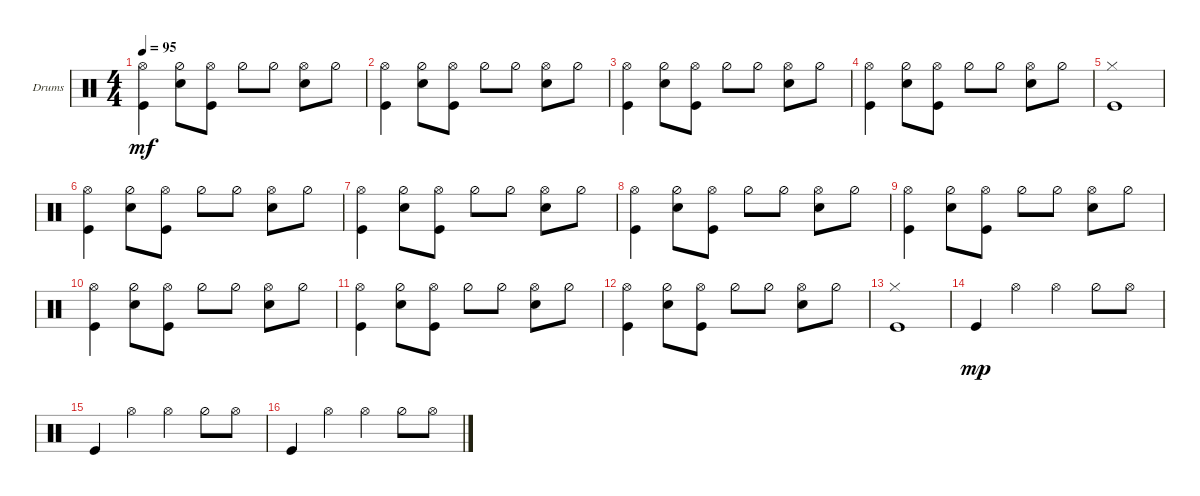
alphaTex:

\defaultSystemsLayout 4
\bracketExtendMode groupsimilarinstruments
\firstSystemTrackNameOrientation horizontal
\otherSystemsTrackNameOrientation horizontal
\track ("Drums" "Drums") {instrument percussion}
\staff {score}
\articulation defaults
\ts (4 4)
\tempo 95
\clef neutral
\ks c
("Kick (hit)" "Hi-Hat (open)").4{dy mf} ("Snare (hit) 2" "Hi-Hat (half)").8 ("Kick (hit)" "Hi-Hat (open)").8 "Hi-Hat (half)".8 "Hi-Hat (half)".8 ("Snare (hit) 2" "Hi-Hat (open)").8 "Hi-Hat (half)".8 |
("Kick (hit)" "Hi-Hat (open)").4 ("Snare (hit) 2" "Hi-Hat (half)").8 ("Kick (hit)" "Hi-Hat (open)").8 "Hi-Hat (half)".8 "Hi-Hat (half)".8 ("Snare (hit) 2" "Hi-Hat (open)").8 "Hi-Hat (half)".8 |
("Kick (hit)" "Hi-Hat (open)").4 ("Snare (hit) 2" "Hi-Hat (half)").8 ("Kick (hit)" "Hi-Hat (open)").8 "Hi-Hat (half)".8 "Hi-Hat (half)".8 ("Snare (hit) 2" "Hi-Hat (open)").8 "Hi-Hat (half)".8 |
("Kick (hit)" "Hi-Hat (open)").4 ("Snare (hit) 2" "Hi-Hat (half)").8 ("Kick (hit)" "Hi-Hat (open)").8 "Hi-Hat (half)".8 "Hi-Hat (half)".8 ("Snare (hit) 2" "Hi-Hat (open)").8 "Hi-Hat (half)".8 |
("Kick (hit)" "Hi-Hat (closed)").1 |
("Kick (hit)" "Hi-Hat (open)").4 ("Snare (hit) 2" "Hi-Hat (half)").8 ("Kick (hit)" "Hi-Hat (open)").8 "Hi-Hat (half)".8 "Hi-Hat (half)".8 ("Snare (hit) 2" "Hi-Hat (open)").8 "Hi-Hat (half)".8 |
("Kick (hit)" "Hi-Hat (open)").4 ("Snare (hit) 2" "Hi-Hat (half)").8 ("Kick (hit)" "Hi-Hat (open)").8 "Hi-Hat (half)".8 "Hi-Hat (half)".8 ("Snare (hit) 2" "Hi-Hat (open)").8 "Hi-Hat (half)".8 |
("Kick (hit)" "Hi-Hat (open)").4 ("Snare (hit) 2" "Hi-Hat (half)").8 ("Kick (hit)" "Hi-Hat (open)").8 "Hi-Hat (half)".8 "Hi-Hat (half)".8 ("Snare (hit) 2" "Hi-Hat (open)").8 "Hi-Hat (half)".8 |
("Kick (hit)" "Hi-Hat (open)").4 ("Snare (hit) 2" "Hi-Hat (half)").8 ("Kick (hit)" "Hi-Hat (open)").8 "Hi-Hat (half)".8 "Hi-Hat (half)".8 ("Snare (hit) 2" "Hi-Hat (open)").8 "Hi-Hat (half)".8 |
("Kick (hit)" "Hi-Hat (open)").4 ("Snare (hit) 2" "Hi-Hat (half)").8 ("Kick (hit)" "Hi-Hat (open)").8 "Hi-Hat (half)".8 "Hi-Hat (half)".8 ("Snare (hit) 2" "Hi-Hat (open)").8 "Hi-Hat (half)".8 |
("Kick (hit)" "Hi-Hat (open)").4 ("Snare (hit) 2" "Hi-Hat (half)").8 ("Kick (hit)" "Hi-Hat (open)").8 "Hi-Hat (half)".8 "Hi-Hat (half)".8 ("Snare (hit) 2" "Hi-Hat (open)").8 "Hi-Hat (half)".8 |
("Kick (hit)" "Hi-Hat (open)").4 ("Snare (hit) 2" "Hi-Hat (half)").8 ("Kick (hit)" "Hi-Hat (open)").8 "Hi-Hat (half)".8 "Hi-Hat (half)".8 ("Snare (hit) 2" "Hi-Hat (open)").8 "Hi-Hat (half)".8 |
("Kick (hit)" "Hi-Hat (closed)").1 |
"Kick (hit)".4{dy mp} "Hi-Hat (open)".4 "Hi-Hat (open)".4 "Hi-Hat (half)".8 "Hi-Hat (open)".8 |
"Kick (hit)".4 "Hi-Hat (open)".4 "Hi-Hat (open)".4 "Hi-Hat (half)".8 "Hi-Hat (open)".8 |
"Kick (hit)".4 "Hi-Hat (open)".4 "Hi-Hat (open)".4 "Hi-Hat (half)".8 "Hi-Hat (open)".8
